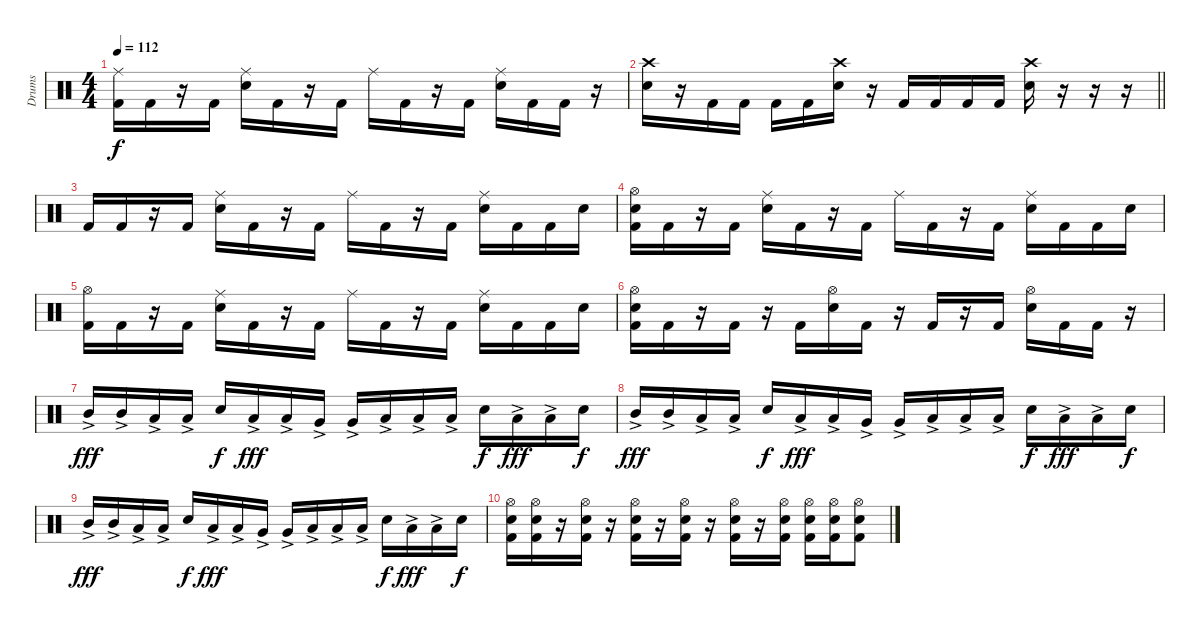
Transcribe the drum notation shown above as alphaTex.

\track ("Drums" "Drums") {instrument percussion}
\staff {score}
\articulation defaults
\ts (4 4)
\tempo 112
\clef neutral
\ks c
("Ride (middle)" "Kick (hit) 2").16{dy f} "Kick (hit) 2".16 r.16 "Kick (hit) 2".16 ("Ride (middle)" "Electric Snare (hit)").16 "Kick (hit) 2".16 r.16 "Kick (hit) 2".16 "Ride (middle)".16 "Kick (hit) 2".16 r.16 "Kick (hit) 2".16 ("Ride (middle)" "Electric Snare (hit)").16 "Kick (hit) 2".16 "Kick (hit) 2".16 r.16 |
\barLineRight lightlight
("Crash high (hit)" "Electric Snare (hit)").16 r.16 "Kick (hit) 2".16 "Kick (hit) 2".16 "Kick (hit) 2".16 "Kick (hit) 2".16 ("Crash high (hit)" "Electric Snare (hit)").16 r.16 "Kick (hit) 2".16 "Kick (hit) 2".16 "Kick (hit) 2".16 "Kick (hit) 2".16 ("Crash high (hit)" "Electric Snare (hit)").16 r.16 r.16 r.16 |
"Kick (hit) 2".16 "Kick (hit) 2".16 r.16 "Kick (hit) 2".16 ("Ride (middle)" "Electric Snare (hit)").16 "Kick (hit) 2".16 r.16 "Kick (hit) 2".16 "Ride (middle)".16 "Kick (hit) 2".16 r.16 "Kick (hit) 2".16 ("Ride (middle)" "Electric Snare (hit)").16 "Kick (hit) 2".16 "Kick (hit) 2".16 "Electric Snare (hit)".16 |
("Hi-Hat (open)" "Electric Snare (hit)" "Kick (hit) 2").16 "Kick (hit) 2".16 r.16 "Kick (hit) 2".16 ("Ride (middle)" "Electric Snare (hit)").16 "Kick (hit) 2".16 r.16 "Kick (hit) 2".16 "Ride (middle)".16 "Kick (hit) 2".16 r.16 "Kick (hit) 2".16 ("Ride (middle)" "Electric Snare (hit)").16 "Kick (hit) 2".16 "Kick (hit) 2".16 "Electric Snare (hit)".16 |
("Hi-Hat (open)" "Kick (hit) 2").16 "Kick (hit) 2".16 r.16 "Kick (hit) 2".16 ("Ride (middle)" "Electric Snare (hit)").16 "Kick (hit) 2".16 r.16 "Kick (hit) 2".16 "Ride (middle)".16 "Kick (hit) 2".16 r.16 "Kick (hit) 2".16 ("Ride (middle)" "Electric Snare (hit)").16 "Kick (hit) 2".16 "Kick (hit) 2".16 "Electric Snare (hit)".16 |
("Hi-Hat (open)" "Electric Snare (hit)" "Kick (hit) 2").16 "Kick (hit) 2".16 r.16 "Kick (hit) 2".16 r.16 "Kick (hit) 2".16 ("Hi-Hat (open)" "Electric Snare (hit)").16 "Kick (hit) 2".16 r.16 "Kick (hit) 2".16 r.16 "Kick (hit) 2".16 ("Hi-Hat (open)" "Electric Snare (hit)").16 "Kick (hit) 2".16 "Kick (hit) 2".16 r.16 |
"Mid Tom (hit)"{ac}.16{dy fff} "Mid Tom (hit)"{ac}.16 "Low Tom (hit)"{ac}.16 "Low Tom (hit)"{ac}.16 "Electric Snare (hit)".16{dy f} "Low Tom (hit)"{ac}.16{dy fff} "Low Tom (hit)"{ac}.16 "Very Low Tom (hit)"{ac}.16 "Very Low Tom (hit)"{ac}.16 "Low Floor Tom (hit)"{ac}.16 "Low Floor Tom (hit)"{ac}.16 "Low Floor Tom (hit)"{ac}.16 "Electric Snare (hit)".16{dy f} "Low Floor Tom (hit)"{ac}.16{dy fff} "Low Floor Tom (hit)"{ac}.16 "Electric Snare (hit)".16{dy f} |
"Mid Tom (hit)"{ac}.16{dy fff} "Mid Tom (hit)"{ac}.16 "Low Tom (hit)"{ac}.16 "Low Tom (hit)"{ac}.16 "Electric Snare (hit)".16{dy f} "Low Tom (hit)"{ac}.16{dy fff} "Low Tom (hit)"{ac}.16 "Very Low Tom (hit)"{ac}.16 "Very Low Tom (hit)"{ac}.16 "Low Floor Tom (hit)"{ac}.16 "Low Floor Tom (hit)"{ac}.16 "Low Floor Tom (hit)"{ac}.16 "Electric Snare (hit)".16{dy f} "Low Floor Tom (hit)"{ac}.16{dy fff} "Low Floor Tom (hit)"{ac}.16 "Electric Snare (hit)".16{dy f} |
"Mid Tom (hit)"{ac}.16{dy fff} "Mid Tom (hit)"{ac}.16 "Low Tom (hit)"{ac}.16 "Low Tom (hit)"{ac}.16 "Electric Snare (hit)".16{dy f} "Low Tom (hit)"{ac}.16{dy fff} "Low Tom (hit)"{ac}.16 "Very Low Tom (hit)"{ac}.16 "Very Low Tom (hit)"{ac}.16 "Low Floor Tom (hit)"{ac}.16 "Low Floor Tom (hit)"{ac}.16 "Low Floor Tom (hit)"{ac}.16 "Electric Snare (hit)".16{dy f} "Low Floor Tom (hit)"{ac}.16{dy fff} "Low Floor Tom (hit)"{ac}.16 "Electric Snare (hit)".16{dy f} |
("Hi-Hat (open)" "Electric Snare (hit)" "Kick (hit) 2").16 ("Hi-Hat (open)" "Electric Snare (hit)" "Kick (hit) 2").16 r.16 ("Hi-Hat (open)" "Electric Snare (hit)" "Kick (hit) 2").16 r.16 ("Hi-Hat (open)" "Electric Snare (hit)" "Kick (hit) 2").16 r.16 ("Hi-Hat (open)" "Electric Snare (hit)" "Kick (hit) 2").16 r.16 ("Hi-Hat (open)" "Electric Snare (hit)" "Kick (hit) 2").16 r.16 ("Hi-Hat (open)" "Electric Snare (hit)" "Kick (hit) 2").16 ("Hi-Hat (open)" "Electric Snare (hit)" "Kick (hit) 2").16 ("Hi-Hat (open)" "Electric Snare (hit)" "Kick (hit) 2").16 ("Hi-Hat (open)" "Electric Snare (hit)" "Kick (hit) 2").8
